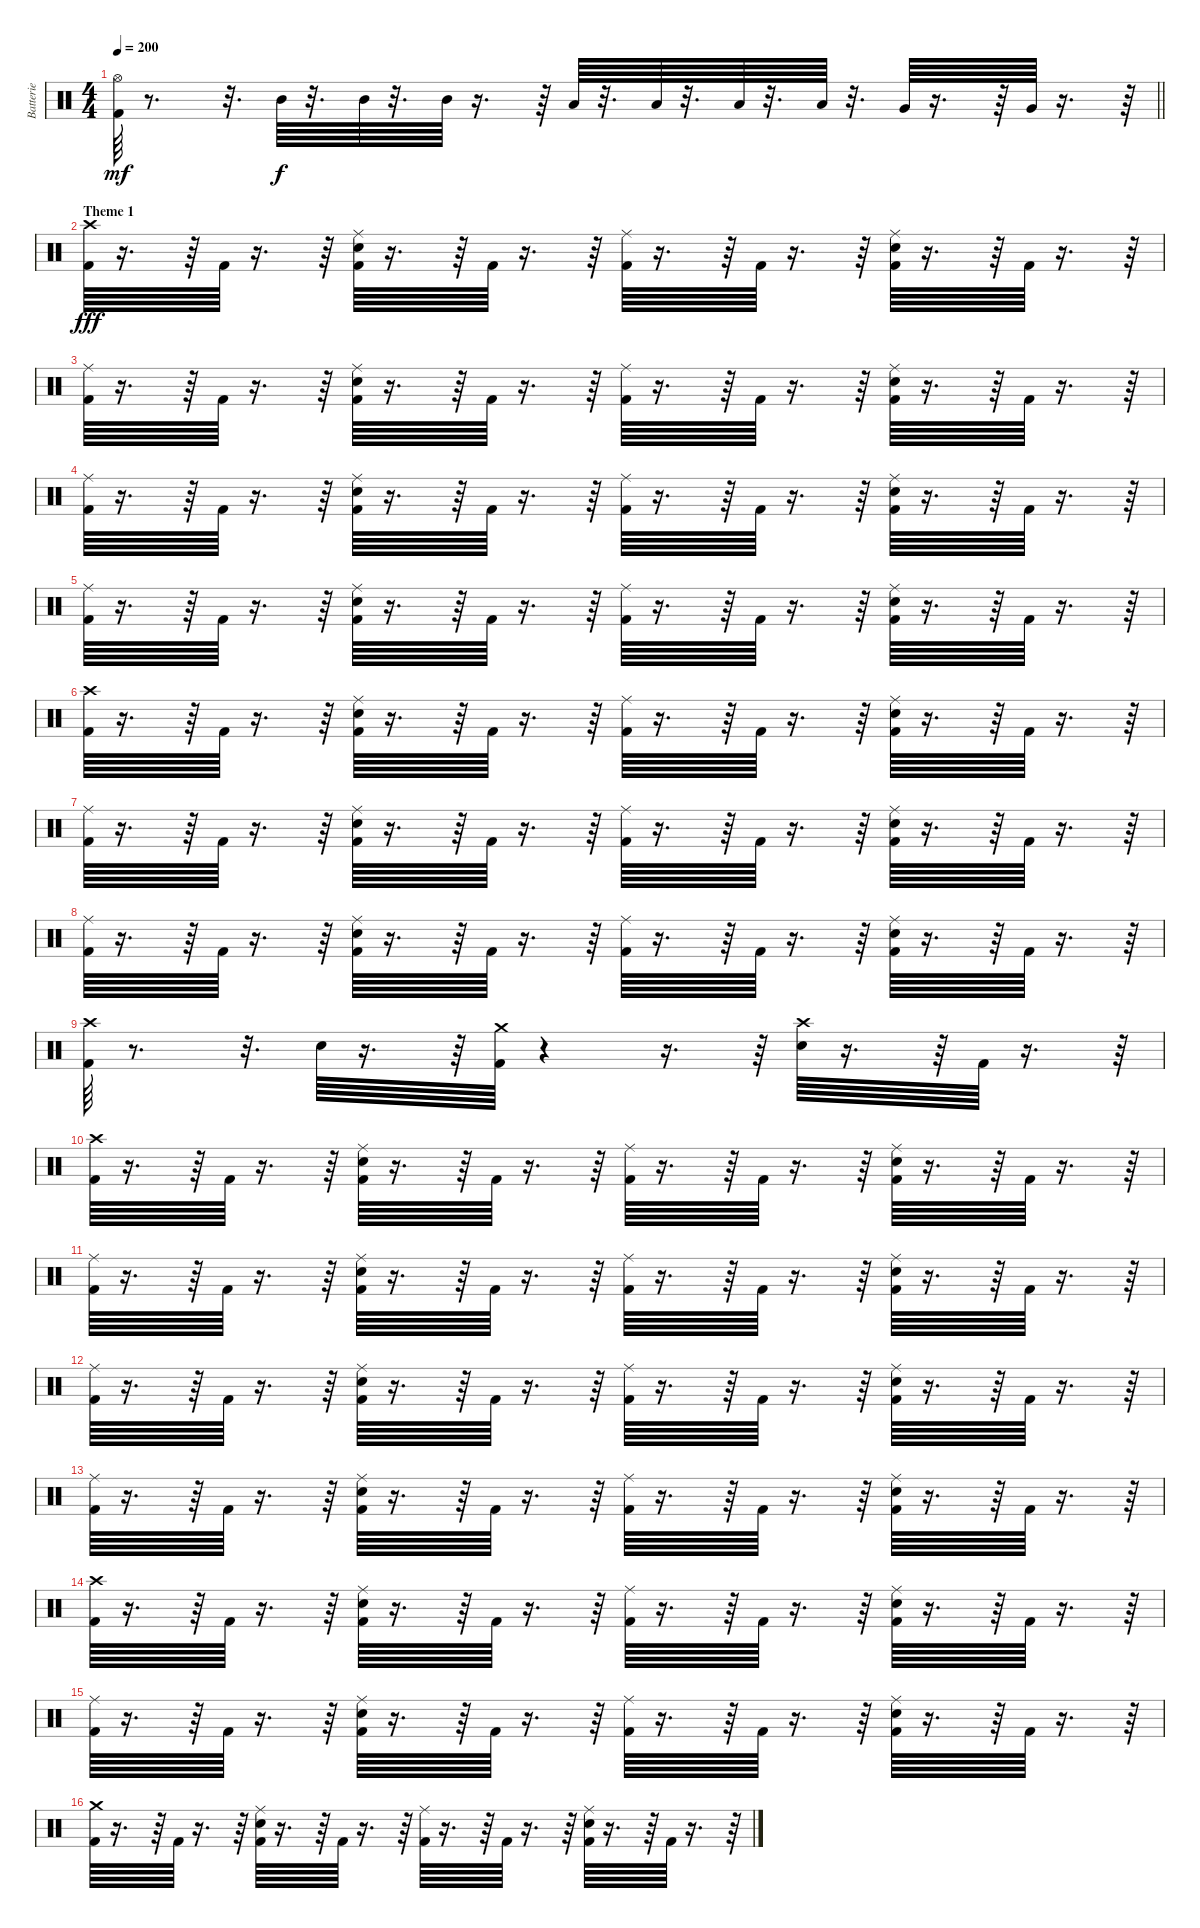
\track ("Batterie" "Batterie") {instrument percussion}
\staff {score}
\articulation defaults
\ts (4 4)
\tempo 200
\clef neutral
\barLineRight lightlight
\ks c
("Kick (hit) 2" "Hi-Hat (open)").64{dy mf} r.8{d} r.32{d} "Mid Tom (hit)".64{dy f} r.32{d} "Mid Tom (hit)".64 r.32{d} "Mid Tom (hit)".64 r.16{d} r.64 "Low Tom (hit)".64 r.32{d} "Low Tom (hit)".64 r.32{d} "Low Tom (hit)".64 r.32{d} "Low Tom (hit)".64 r.32{d} "Very Low Tom (hit)".64 r.16{d} r.64 "Very Low Tom (hit)".64 r.16{d} r.64 |
\section ("" "Theme 1")
("Kick (hit) 2" "Crash high (hit)").64{dy fff} r.16{d} r.64 "Kick (hit) 2".64 r.16{d} r.64 ("Kick (hit) 2" "Snare (hit) 2" "Ride (middle)").64 r.16{d} r.64 "Kick (hit) 2".64 r.16{d} r.64 ("Kick (hit) 2" "Ride (middle)").64 r.16{d} r.64 "Kick (hit) 2".64 r.16{d} r.64 ("Kick (hit) 2" "Snare (hit) 2" "Ride (middle)").64 r.16{d} r.64 "Kick (hit) 2".64 r.16{d} r.64 |
("Kick (hit) 2" "Ride (middle)").64 r.16{d} r.64 "Kick (hit) 2".64 r.16{d} r.64 ("Kick (hit) 2" "Snare (hit) 2" "Ride (middle)").64 r.16{d} r.64 "Kick (hit) 2".64 r.16{d} r.64 ("Kick (hit) 2" "Ride (middle)").64 r.16{d} r.64 "Kick (hit) 2".64 r.16{d} r.64 ("Kick (hit) 2" "Snare (hit) 2" "Ride (middle)").64 r.16{d} r.64 "Kick (hit) 2".64 r.16{d} r.64 |
("Kick (hit) 2" "Ride (middle)").64 r.16{d} r.64 "Kick (hit) 2".64 r.16{d} r.64 ("Kick (hit) 2" "Snare (hit) 2" "Ride (middle)").64 r.16{d} r.64 "Kick (hit) 2".64 r.16{d} r.64 ("Kick (hit) 2" "Ride (middle)").64 r.16{d} r.64 "Kick (hit) 2".64 r.16{d} r.64 ("Kick (hit) 2" "Snare (hit) 2" "Ride (middle)").64 r.16{d} r.64 "Kick (hit) 2".64 r.16{d} r.64 |
("Kick (hit) 2" "Ride (middle)").64 r.16{d} r.64 "Kick (hit) 2".64 r.16{d} r.64 ("Kick (hit) 2" "Snare (hit) 2" "Ride (middle)").64 r.16{d} r.64 "Kick (hit) 2".64 r.16{d} r.64 ("Kick (hit) 2" "Ride (middle)").64 r.16{d} r.64 "Kick (hit) 2".64 r.16{d} r.64 ("Kick (hit) 2" "Snare (hit) 2" "Ride (middle)").64 r.16{d} r.64 "Kick (hit) 2".64 r.16{d} r.64 |
("Kick (hit) 2" "Crash high (hit)").64 r.16{d} r.64 "Kick (hit) 2".64 r.16{d} r.64 ("Kick (hit) 2" "Snare (hit) 2" "Ride (middle)").64 r.16{d} r.64 "Kick (hit) 2".64 r.16{d} r.64 ("Kick (hit) 2" "Ride (middle)").64 r.16{d} r.64 "Kick (hit) 2".64 r.16{d} r.64 ("Kick (hit) 2" "Snare (hit) 2" "Ride (middle)").64 r.16{d} r.64 "Kick (hit) 2".64 r.16{d} r.64 |
("Kick (hit) 2" "Ride (middle)").64 r.16{d} r.64 "Kick (hit) 2".64 r.16{d} r.64 ("Kick (hit) 2" "Snare (hit) 2" "Ride (middle)").64 r.16{d} r.64 "Kick (hit) 2".64 r.16{d} r.64 ("Kick (hit) 2" "Ride (middle)").64 r.16{d} r.64 "Kick (hit) 2".64 r.16{d} r.64 ("Kick (hit) 2" "Snare (hit) 2" "Ride (middle)").64 r.16{d} r.64 "Kick (hit) 2".64 r.16{d} r.64 |
("Kick (hit) 2" "Ride (middle)").64 r.16{d} r.64 "Kick (hit) 2".64 r.16{d} r.64 ("Snare (hit) 2" "Kick (hit) 2" "Ride (middle)").64 r.16{d} r.64 "Kick (hit) 2".64 r.16{d} r.64 ("Kick (hit) 2" "Ride (middle)").64 r.16{d} r.64 "Kick (hit) 2".64 r.16{d} r.64 ("Kick (hit) 2" "Snare (hit) 2" "Ride (middle)").64 r.16{d} r.64 "Kick (hit) 2".64 r.16{d} r.64 |
("Kick (hit) 2" "Crash high (hit)").64 r.8{d} r.32{d} "Snare (hit) 2".64 r.16{d} r.64 ("Kick (hit) 2" "Crash medium (hit)").64 r.4 r.16{d} r.64 ("Snare (hit) 2" "Crash high (hit)").64 r.16{d} r.64 "Kick (hit) 2".64 r.16{d} r.64 |
("Kick (hit) 2" "Crash high (hit)").64 r.16{d} r.64 "Kick (hit) 2".64 r.16{d} r.64 ("Kick (hit) 2" "Snare (hit) 2" "Ride (middle)").64 r.16{d} r.64 "Kick (hit) 2".64 r.16{d} r.64 ("Kick (hit) 2" "Ride (middle)").64 r.16{d} r.64 "Kick (hit) 2".64 r.16{d} r.64 ("Kick (hit) 2" "Snare (hit) 2" "Ride (middle)").64 r.16{d} r.64 "Kick (hit) 2".64 r.16{d} r.64 |
("Kick (hit) 2" "Ride (middle)").64 r.16{d} r.64 "Kick (hit) 2".64 r.16{d} r.64 ("Kick (hit) 2" "Snare (hit) 2" "Ride (middle)").64 r.16{d} r.64 "Kick (hit) 2".64 r.16{d} r.64 ("Kick (hit) 2" "Ride (middle)").64 r.16{d} r.64 "Kick (hit) 2".64 r.16{d} r.64 ("Kick (hit) 2" "Snare (hit) 2" "Ride (middle)").64 r.16{d} r.64 "Kick (hit) 2".64 r.16{d} r.64 |
("Kick (hit) 2" "Ride (middle)").64 r.16{d} r.64 "Kick (hit) 2".64 r.16{d} r.64 ("Kick (hit) 2" "Snare (hit) 2" "Ride (middle)").64 r.16{d} r.64 "Kick (hit) 2".64 r.16{d} r.64 ("Kick (hit) 2" "Ride (middle)").64 r.16{d} r.64 "Kick (hit) 2".64 r.16{d} r.64 ("Kick (hit) 2" "Snare (hit) 2" "Ride (middle)").64 r.16{d} r.64 "Kick (hit) 2".64 r.16{d} r.64 |
("Kick (hit) 2" "Ride (middle)").64 r.16{d} r.64 "Kick (hit) 2".64 r.16{d} r.64 ("Kick (hit) 2" "Snare (hit) 2" "Ride (middle)").64 r.16{d} r.64 "Kick (hit) 2".64 r.16{d} r.64 ("Kick (hit) 2" "Ride (middle)").64 r.16{d} r.64 "Kick (hit) 2".64 r.16{d} r.64 ("Kick (hit) 2" "Snare (hit) 2" "Ride (middle)").64 r.16{d} r.64 "Kick (hit) 2".64 r.16{d} r.64 |
("Kick (hit) 2" "Crash high (hit)").64 r.16{d} r.64 "Kick (hit) 2".64 r.16{d} r.64 ("Kick (hit) 2" "Snare (hit) 2" "Ride (middle)").64 r.16{d} r.64 "Kick (hit) 2".64 r.16{d} r.64 ("Kick (hit) 2" "Ride (middle)").64 r.16{d} r.64 "Kick (hit) 2".64 r.16{d} r.64 ("Kick (hit) 2" "Snare (hit) 2" "Ride (middle)").64 r.16{d} r.64 "Kick (hit) 2".64 r.16{d} r.64 |
("Kick (hit) 2" "Ride (middle)").64 r.16{d} r.64 "Kick (hit) 2".64 r.16{d} r.64 ("Kick (hit) 2" "Snare (hit) 2" "Ride (middle)").64 r.16{d} r.64 "Kick (hit) 2".64 r.16{d} r.64 ("Kick (hit) 2" "Ride (middle)").64 r.16{d} r.64 "Kick (hit) 2".64 r.16{d} r.64 ("Kick (hit) 2" "Snare (hit) 2" "Ride (middle)").64 r.16{d} r.64 "Kick (hit) 2".64 r.16{d} r.64 |
("Kick (hit) 2" "Crash medium (hit)").64 r.16{d} r.64 "Kick (hit) 2".64 r.16{d} r.64 ("Kick (hit) 2" "Snare (hit) 2" "Ride (middle)").64 r.16{d} r.64 "Kick (hit) 2".64 r.16{d} r.64 ("Kick (hit) 2" "Ride (middle)").64 r.16{d} r.64 "Kick (hit) 2".64 r.16{d} r.64 ("Kick (hit) 2" "Snare (hit) 2" "Ride (middle)").64 r.16{d} r.64 "Kick (hit) 2".64 r.16{d} r.64
